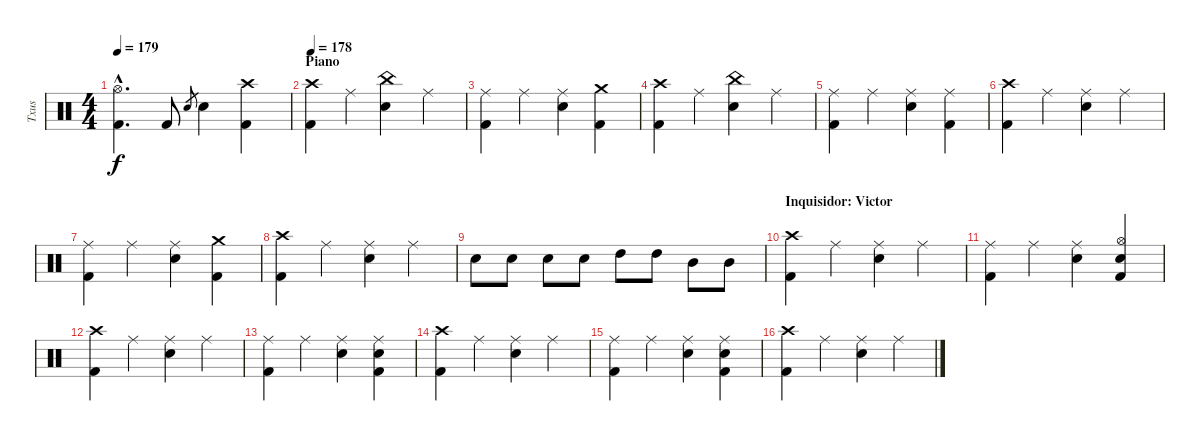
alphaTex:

\track ("Txus" "Txus") {instrument percussion}
\staff {score}
\articulation defaults
\ts (4 4)
\tempo 179
\clef neutral
\ks c
("Kick (hit) 2"{hac} "Hi-Hat (open)"{hac}).4{d dy f} "Kick (hit) 2".8 "Electric Snare (hit)".8{gr} "Electric Snare (hit)".4 ("Kick (hit) 2" "Crash high (hit)").4 |
\section ("" "Piano")
\tempo 178
("Kick (hit) 2" "Crash high (hit)").4 "Ride (middle)".4 ("China (hit)" "Electric Snare (hit)").4 "Ride (middle)".4 |
("Kick (hit) 2" "Ride (middle)").4 "Ride (middle)".4 ("Ride (middle)" "Electric Snare (hit)").4 ("Kick (hit) 2" "Crash medium (hit)").4 |
("Kick (hit) 2" "Crash high (hit)").4 "Ride (middle)".4 ("China (hit)" "Electric Snare (hit)").4 "Ride (middle)".4 |
("Kick (hit) 2" "Ride (middle)").4 "Ride (middle)".4 ("Ride (middle)" "Electric Snare (hit)").4 ("Kick (hit) 2" "Ride (middle)").4 |
("Kick (hit) 2" "Crash high (hit)").4 "Ride (middle)".4 ("Ride (middle)" "Electric Snare (hit)").4 "Ride (middle)".4 |
("Kick (hit) 2" "Ride (middle)").4 "Ride (middle)".4 ("Ride (middle)" "Electric Snare (hit)").4 ("Kick (hit) 2" "Crash medium (hit)").4 |
("Kick (hit) 2" "Crash high (hit)").4 "Ride (middle)".4 ("Ride (middle)" "Electric Snare (hit)").4 "Ride (middle)".4 |
"Electric Snare (hit)".8 "Electric Snare (hit)".8 "Electric Snare (hit)".8 "Electric Snare (hit)".8 "High Tom (hit)".8 "High Tom (hit)".8 "Mid Tom (hit)".8 "Mid Tom (hit)".8 |
\section ("" "Inquisidor: Victor")
("Kick (hit) 2" "Crash high (hit)").4 "Ride (middle)".4 ("Ride (middle)" "Electric Snare (hit)").4 "Ride (middle)".4 |
("Kick (hit) 2" "Ride (middle)").4 "Ride (middle)".4 ("Ride (middle)" "Electric Snare (hit)").4 ("Kick (hit) 2" "Hi-Hat (open)" "Electric Snare (hit)").4 |
("Kick (hit) 2" "Crash high (hit)").4 "Ride (middle)".4 ("Ride (middle)" "Electric Snare (hit)").4 "Ride (middle)".4 |
("Kick (hit) 2" "Ride (middle)").4 "Ride (middle)".4 ("Ride (middle)" "Electric Snare (hit)").4 ("Kick (hit) 2" "Ride (middle)" "Electric Snare (hit)").4 |
("Kick (hit) 2" "Crash high (hit)").4 "Ride (middle)".4 ("Ride (middle)" "Electric Snare (hit)").4 "Ride (middle)".4 |
("Kick (hit) 2" "Ride (middle)").4 "Ride (middle)".4 ("Ride (middle)" "Electric Snare (hit)").4 ("Kick (hit) 2" "Ride (middle)" "Electric Snare (hit)").4 |
("Kick (hit) 2" "Crash high (hit)").4 "Ride (middle)".4 ("Ride (middle)" "Electric Snare (hit)").4 "Ride (middle)".4
